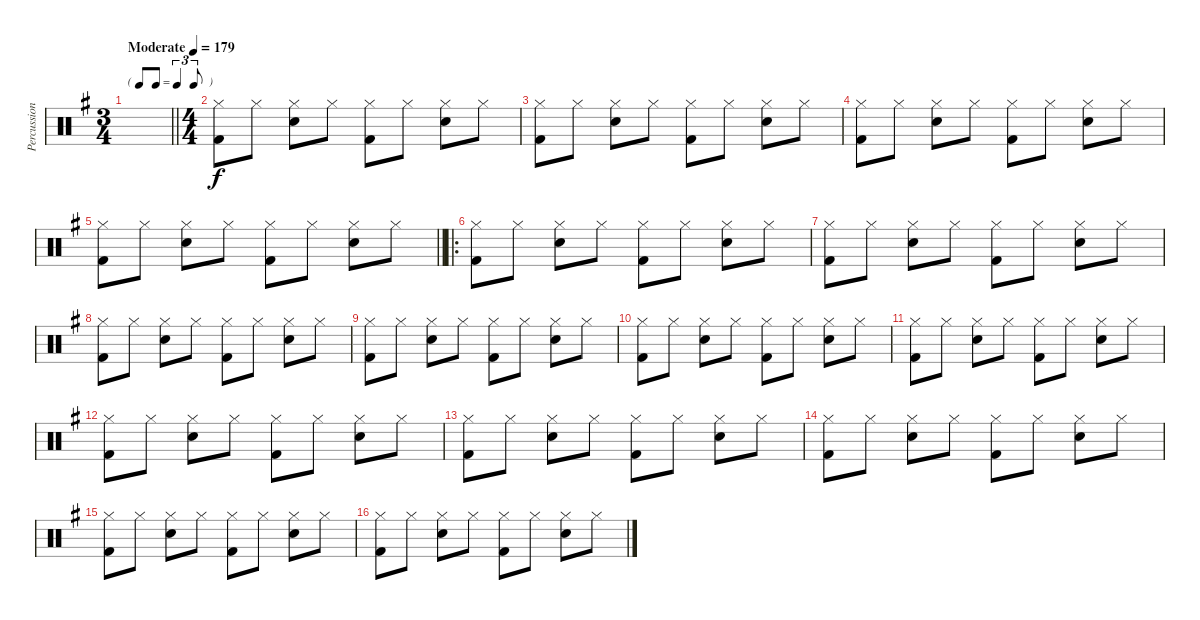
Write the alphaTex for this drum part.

\track ("Percussion" "Percussion") {instrument percussion}
\staff {score}
\articulation defaults
\ts (3 4)
\tf triplet8th
\tempo (179 "Moderate")
\clef neutral
\barLineRight lightlight
\ks g
|
\ts (4 4)
("Hi-Hat (closed)" "Kick (hit) 2").8 "Hi-Hat (closed)".8 ("Hi-Hat (closed)" "Snare (hit) 2").8 "Hi-Hat (closed)".8 ("Hi-Hat (closed)" "Kick (hit) 2").8 "Hi-Hat (closed)".8 ("Hi-Hat (closed)" "Snare (hit) 2").8 "Hi-Hat (closed)".8 |
("Hi-Hat (closed)" "Kick (hit) 2").8 "Hi-Hat (closed)".8 ("Hi-Hat (closed)" "Snare (hit) 2").8 "Hi-Hat (closed)".8 ("Hi-Hat (closed)" "Kick (hit) 2").8 "Hi-Hat (closed)".8 ("Hi-Hat (closed)" "Snare (hit) 2").8 "Hi-Hat (closed)".8 |
("Hi-Hat (closed)" "Kick (hit) 2").8 "Hi-Hat (closed)".8 ("Hi-Hat (closed)" "Snare (hit) 2").8 "Hi-Hat (closed)".8 ("Hi-Hat (closed)" "Kick (hit) 2").8 "Hi-Hat (closed)".8 ("Hi-Hat (closed)" "Snare (hit) 2").8 "Hi-Hat (closed)".8 |
\barLineRight lightlight
("Hi-Hat (closed)" "Kick (hit) 2").8 "Hi-Hat (closed)".8 ("Hi-Hat (closed)" "Snare (hit) 2").8 "Hi-Hat (closed)".8 ("Hi-Hat (closed)" "Kick (hit) 2").8 "Hi-Hat (closed)".8 ("Hi-Hat (closed)" "Snare (hit) 2").8 "Hi-Hat (closed)".8 |
\ro
("Hi-Hat (closed)" "Kick (hit) 2").8 "Hi-Hat (closed)".8 ("Hi-Hat (closed)" "Snare (hit) 2").8 "Hi-Hat (closed)".8 ("Hi-Hat (closed)" "Kick (hit) 2").8 "Hi-Hat (closed)".8 ("Hi-Hat (closed)" "Snare (hit) 2").8 "Hi-Hat (closed)".8 |
("Hi-Hat (closed)" "Kick (hit) 2").8 "Hi-Hat (closed)".8 ("Hi-Hat (closed)" "Snare (hit) 2").8 "Hi-Hat (closed)".8 ("Hi-Hat (closed)" "Kick (hit) 2").8 "Hi-Hat (closed)".8 ("Hi-Hat (closed)" "Snare (hit) 2").8 "Hi-Hat (closed)".8 |
("Hi-Hat (closed)" "Kick (hit) 2").8 "Hi-Hat (closed)".8 ("Hi-Hat (closed)" "Snare (hit) 2").8 "Hi-Hat (closed)".8 ("Hi-Hat (closed)" "Kick (hit) 2").8 "Hi-Hat (closed)".8 ("Hi-Hat (closed)" "Snare (hit) 2").8 "Hi-Hat (closed)".8 |
("Hi-Hat (closed)" "Kick (hit) 2").8 "Hi-Hat (closed)".8 ("Hi-Hat (closed)" "Snare (hit) 2").8 "Hi-Hat (closed)".8 ("Hi-Hat (closed)" "Kick (hit) 2").8 "Hi-Hat (closed)".8 ("Hi-Hat (closed)" "Snare (hit) 2").8 "Hi-Hat (closed)".8 |
("Hi-Hat (closed)" "Kick (hit) 2").8 "Hi-Hat (closed)".8 ("Hi-Hat (closed)" "Snare (hit) 2").8 "Hi-Hat (closed)".8 ("Hi-Hat (closed)" "Kick (hit) 2").8 "Hi-Hat (closed)".8 ("Hi-Hat (closed)" "Snare (hit) 2").8 "Hi-Hat (closed)".8 |
("Hi-Hat (closed)" "Kick (hit) 2").8 "Hi-Hat (closed)".8 ("Hi-Hat (closed)" "Snare (hit) 2").8 "Hi-Hat (closed)".8 ("Hi-Hat (closed)" "Kick (hit) 2").8 "Hi-Hat (closed)".8 ("Hi-Hat (closed)" "Snare (hit) 2").8 "Hi-Hat (closed)".8 |
("Hi-Hat (closed)" "Kick (hit) 2").8 "Hi-Hat (closed)".8 ("Hi-Hat (closed)" "Snare (hit) 2").8 "Hi-Hat (closed)".8 ("Hi-Hat (closed)" "Kick (hit) 2").8 "Hi-Hat (closed)".8 ("Hi-Hat (closed)" "Snare (hit) 2").8 "Hi-Hat (closed)".8 |
("Hi-Hat (closed)" "Kick (hit) 2").8 "Hi-Hat (closed)".8 ("Hi-Hat (closed)" "Snare (hit) 2").8 "Hi-Hat (closed)".8 ("Hi-Hat (closed)" "Kick (hit) 2").8 "Hi-Hat (closed)".8 ("Hi-Hat (closed)" "Snare (hit) 2").8 "Hi-Hat (closed)".8 |
("Hi-Hat (closed)" "Kick (hit) 2").8 "Hi-Hat (closed)".8 ("Hi-Hat (closed)" "Snare (hit) 2").8 "Hi-Hat (closed)".8 ("Hi-Hat (closed)" "Kick (hit) 2").8 "Hi-Hat (closed)".8 ("Hi-Hat (closed)" "Snare (hit) 2").8 "Hi-Hat (closed)".8 |
("Hi-Hat (closed)" "Kick (hit) 2").8 "Hi-Hat (closed)".8 ("Hi-Hat (closed)" "Snare (hit) 2").8 "Hi-Hat (closed)".8 ("Hi-Hat (closed)" "Kick (hit) 2").8 "Hi-Hat (closed)".8 ("Hi-Hat (closed)" "Snare (hit) 2").8 "Hi-Hat (closed)".8 |
("Hi-Hat (closed)" "Kick (hit) 2").8 "Hi-Hat (closed)".8 ("Hi-Hat (closed)" "Snare (hit) 2").8 "Hi-Hat (closed)".8 ("Hi-Hat (closed)" "Kick (hit) 2").8 "Hi-Hat (closed)".8 ("Hi-Hat (closed)" "Snare (hit) 2").8 "Hi-Hat (closed)".8
